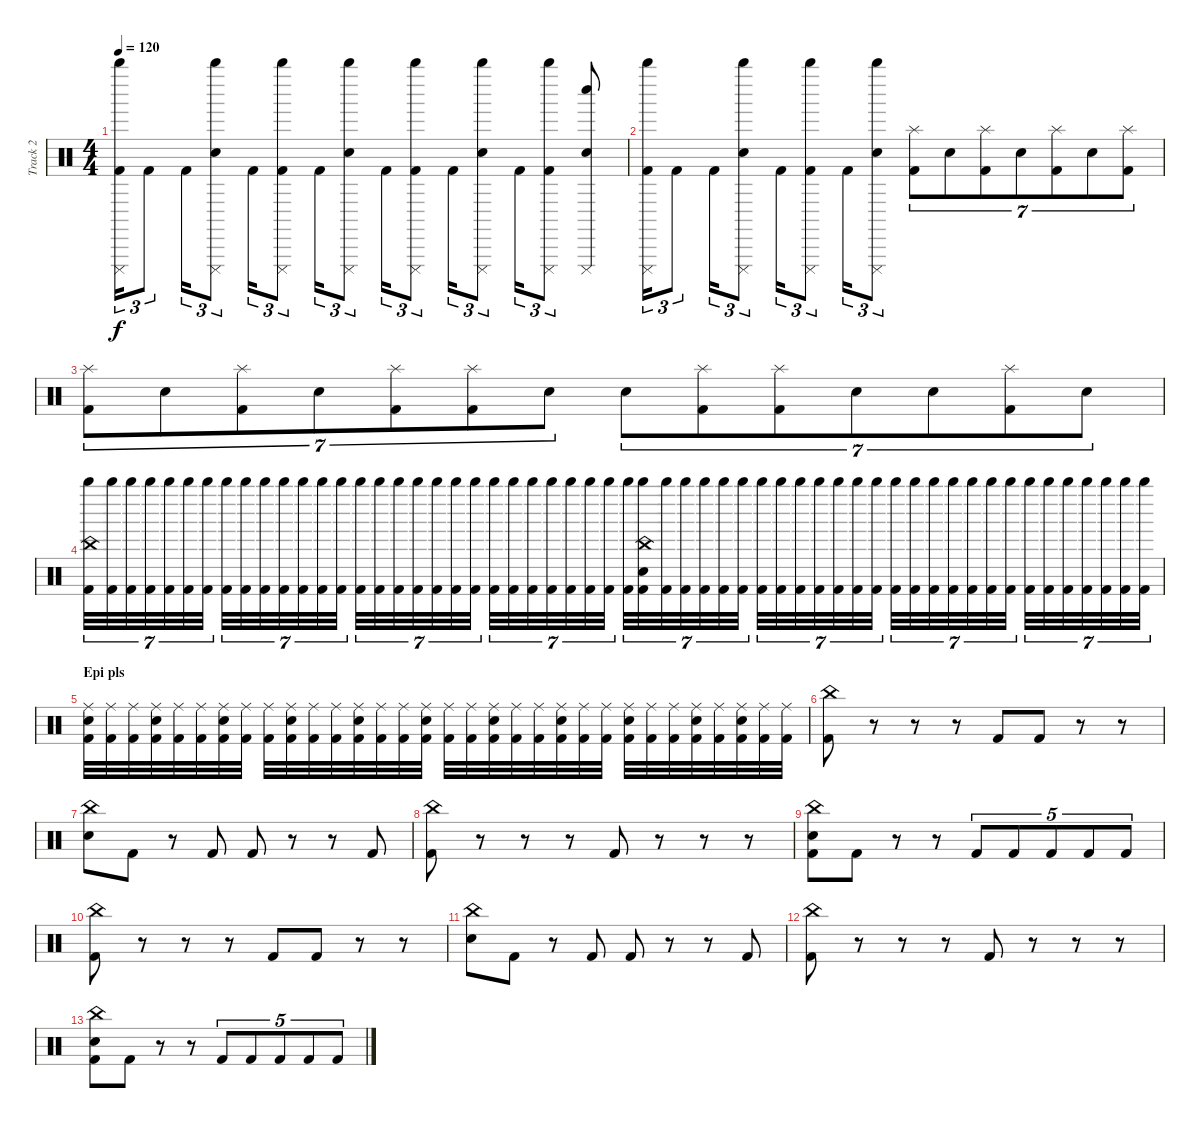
\track ("Track 2" "Track 2") {instrument percussion}
\staff {score}
\articulation defaults
\ts (4 4)
\tempo 120
\clef neutral
\ks c
("Whistle high (hit)" "Cuica (mute)" "Kick (hit) 2").16{tu (3 2) dy f} "Kick (hit) 2".8{tu (3 2)} "Kick (hit) 2".16{tu (3 2)} ("Whistle high (hit)" "Cuica (mute)" "Electric Snare (hit)").8{tu (3 2)} "Kick (hit) 2".16{tu (3 2)} ("Whistle high (hit)" "Cuica (mute)" "Kick (hit) 2").8{tu (3 2)} "Kick (hit) 2".16{tu (3 2)} ("Whistle high (hit)" "Cuica (mute)" "Electric Snare (hit)").8{tu (3 2)} "Kick (hit) 2".16{tu (3 2)} ("Whistle high (hit)" "Cuica (mute)" "Kick (hit) 2").8{tu (3 2)} "Kick (hit) 2".16{tu (3 2)} ("Whistle high (hit)" "Cuica (mute)" "Electric Snare (hit)").8{tu (3 2)} "Kick (hit) 2".16{tu (3 2)} ("Whistle high (hit)" "Cuica (mute)" "Kick (hit) 2").8{tu (3 2)} ("Whistle low (hit)" "Cuica (mute)" "Electric Snare (hit)").8 |
("Whistle high (hit)" "Cuica (mute)" "Kick (hit) 2").16{tu (3 2)} "Kick (hit) 2".8{tu (3 2)} "Kick (hit) 2".16{tu (3 2)} ("Whistle high (hit)" "Cuica (mute)" "Electric Snare (hit)").8{tu (3 2)} "Kick (hit) 2".16{tu (3 2)} ("Whistle high (hit)" "Cuica (mute)" "Kick (hit) 2").8{tu (3 2)} "Kick (hit) 2".16{tu (3 2)} ("Whistle high (hit)" "Cuica (mute)" "Electric Snare (hit)").8{tu (3 2)} ("Splash (hit)" "Kick (hit) 2").8{tu (7 4)} "Electric Snare (hit)".8{tu (7 4)} ("Splash (hit)" "Kick (hit) 2").8{tu (7 4)} "Electric Snare (hit)".8{tu (7 4)} ("Splash (hit)" "Kick (hit) 2").8{tu (7 4)} "Electric Snare (hit)".8{tu (7 4)} ("Splash (hit)" "Kick (hit) 2").8{tu (7 4)} |
("Splash (hit)" "Kick (hit) 2").8{tu (7 4)} "Electric Snare (hit)".8{tu (7 4)} ("Splash (hit)" "Kick (hit) 2").8{tu (7 4)} "Electric Snare (hit)".8{tu (7 4)} ("Splash (hit)" "Kick (hit) 2").8{tu (7 4)} ("Splash (hit)" "Kick (hit) 2").8{tu (7 4)} "Electric Snare (hit)".8{tu (7 4)} "Electric Snare (hit)".8{tu (7 4)} ("Splash (hit)" "Kick (hit) 2").8{tu (7 4)} ("Splash (hit)" "Kick (hit) 2").8{tu (7 4)} "Electric Snare (hit)".8{tu (7 4)} "Electric Snare (hit)".8{tu (7 4)} ("Splash (hit)" "Kick (hit) 2").8{tu (7 4)} "Electric Snare (hit)".8{tu (7 4)} |
("China (hit)" "Whistle high (hit)" "Kick (hit) 2").32{tu (7 4)} ("Whistle high (hit)" "Kick (hit) 2").32{tu (7 4)} ("Whistle high (hit)" "Kick (hit) 2").32{tu (7 4)} ("Whistle high (hit)" "Kick (hit) 2").32{tu (7 4)} ("Whistle high (hit)" "Kick (hit) 2").32{tu (7 4)} ("Whistle high (hit)" "Kick (hit) 2").32{tu (7 4)} ("Whistle high (hit)" "Kick (hit) 2").32{tu (7 4)} ("Whistle high (hit)" "Kick (hit) 2").32{tu (7 4)} ("Whistle high (hit)" "Kick (hit) 2").32{tu (7 4)} ("Whistle high (hit)" "Kick (hit) 2").32{tu (7 4)} ("Whistle high (hit)" "Kick (hit) 2").32{tu (7 4)} ("Whistle high (hit)" "Kick (hit) 2").32{tu (7 4)} ("Whistle high (hit)" "Kick (hit) 2").32{tu (7 4)} ("Whistle high (hit)" "Kick (hit) 2").32{tu (7 4)} ("Whistle high (hit)" "Kick (hit) 2").32{tu (7 4)} ("Whistle high (hit)" "Kick (hit) 2").32{tu (7 4)} ("Whistle high (hit)" "Kick (hit) 2").32{tu (7 4)} ("Whistle high (hit)" "Kick (hit) 2").32{tu (7 4)} ("Whistle high (hit)" "Kick (hit) 2").32{tu (7 4)} ("Whistle high (hit)" "Kick (hit) 2").32{tu (7 4)} ("Whistle high (hit)" "Kick (hit) 2").32{tu (7 4)} ("Whistle high (hit)" "Kick (hit) 2").32{tu (7 4)} ("Whistle high (hit)" "Kick (hit) 2").32{tu (7 4)} ("Whistle high (hit)" "Kick (hit) 2").32{tu (7 4)} ("Whistle high (hit)" "Kick (hit) 2").32{tu (7 4)} ("Whistle high (hit)" "Kick (hit) 2").32{tu (7 4)} ("Whistle high (hit)" "Kick (hit) 2").32{tu (7 4)} ("Whistle high (hit)" "Kick (hit) 2").32{tu (7 4)} ("Whistle high (hit)" "Kick (hit) 2").32{tu (7 4)} ("China (hit)" "Whistle high (hit)" "Electric Snare (hit)" "Kick (hit) 2").32{tu (7 4)} ("Whistle high (hit)" "Kick (hit) 2").32{tu (7 4)} ("Whistle high (hit)" "Kick (hit) 2").32{tu (7 4)} ("Whistle high (hit)" "Kick (hit) 2").32{tu (7 4)} ("Whistle high (hit)" "Kick (hit) 2").32{tu (7 4)} ("Whistle high (hit)" "Kick (hit) 2").32{tu (7 4)} ("Whistle high (hit)" "Kick (hit) 2").32{tu (7 4)} ("Whistle high (hit)" "Kick (hit) 2").32{tu (7 4)} ("Whistle high (hit)" "Kick (hit) 2").32{tu (7 4)} ("Whistle high (hit)" "Kick (hit) 2").32{tu (7 4)} ("Whistle high (hit)" "Kick (hit) 2").32{tu (7 4)} ("Whistle high (hit)" "Kick (hit) 2").32{tu (7 4)} ("Whistle high (hit)" "Kick (hit) 2").32{tu (7 4)} ("Whistle high (hit)" "Kick (hit) 2").32{tu (7 4)} ("Whistle high (hit)" "Kick (hit) 2").32{tu (7 4)} ("Whistle high (hit)" "Kick (hit) 2").32{tu (7 4)} ("Whistle high (hit)" "Kick (hit) 2").32{tu (7 4)} ("Whistle high (hit)" "Kick (hit) 2").32{tu (7 4)} ("Whistle high (hit)" "Kick (hit) 2").32{tu (7 4)} ("Whistle high (hit)" "Kick (hit) 2").32{tu (7 4)} ("Whistle high (hit)" "Kick (hit) 2").32{tu (7 4)} ("Whistle high (hit)" "Kick (hit) 2").32{tu (7 4)} ("Whistle high (hit)" "Kick (hit) 2").32{tu (7 4)} ("Whistle high (hit)" "Kick (hit) 2").32{tu (7 4)} ("Whistle high (hit)" "Kick (hit) 2").32{tu (7 4)} ("Whistle high (hit)" "Kick (hit) 2").32{tu (7 4)} ("Whistle high (hit)" "Kick (hit) 2").32{tu (7 4)} |
\section ("" "Epi pls")
("Ride (middle)" "Electric Snare (hit)" "Kick (hit) 2").32 ("Ride (middle)" "Kick (hit) 2").32 ("Ride (middle)" "Kick (hit) 2").32 ("Ride (middle)" "Electric Snare (hit)" "Kick (hit) 2").32 ("Ride (middle)" "Kick (hit) 2").32 ("Ride (middle)" "Kick (hit) 2").32 ("Ride (middle)" "Electric Snare (hit)" "Kick (hit) 2").32 ("Ride (middle)" "Kick (hit) 2").32 ("Ride (middle)" "Kick (hit) 2").32 ("Ride (middle)" "Electric Snare (hit)" "Kick (hit) 2").32 ("Ride (middle)" "Kick (hit) 2").32 ("Ride (middle)" "Kick (hit) 2").32 ("Ride (middle)" "Electric Snare (hit)" "Kick (hit) 2").32 ("Ride (middle)" "Kick (hit) 2").32 ("Ride (middle)" "Kick (hit) 2").32 ("Ride (middle)" "Electric Snare (hit)" "Kick (hit) 2").32 ("Ride (middle)" "Kick (hit) 2").32 ("Ride (middle)" "Kick (hit) 2").32 ("Ride (middle)" "Electric Snare (hit)" "Kick (hit) 2").32 ("Ride (middle)" "Kick (hit) 2").32 ("Ride (middle)" "Kick (hit) 2").32 ("Ride (middle)" "Electric Snare (hit)" "Kick (hit) 2").32 ("Ride (middle)" "Kick (hit) 2").32 ("Ride (middle)" "Kick (hit) 2").32 ("Ride (middle)" "Electric Snare (hit)" "Kick (hit) 2").32 ("Ride (middle)" "Kick (hit) 2").32 ("Ride (middle)" "Kick (hit) 2").32 ("Ride (middle)" "Electric Snare (hit)" "Kick (hit) 2").32 ("Ride (middle)" "Kick (hit) 2").32 ("Ride (middle)" "Electric Snare (hit)" "Kick (hit) 2").32 ("Ride (middle)" "Kick (hit) 2").32 ("Ride (middle)" "Kick (hit) 2").32 |
("China (hit)" "Kick (hit) 2").8 r.8 r.8 r.8 "Kick (hit) 2".8 "Kick (hit) 2".8 r.8 r.8 |
("China (hit)" "Electric Snare (hit)").8 "Kick (hit) 2".8 r.8 "Kick (hit) 2".8 "Kick (hit) 2".8 r.8 r.8 "Kick (hit) 2".8 |
("China (hit)" "Kick (hit) 2").8 r.8 r.8 r.8 "Kick (hit) 2".8 r.8 r.8 r.8 |
("China (hit)" "Electric Snare (hit)" "Kick (hit) 2").8 "Kick (hit) 2".8 r.8 r.8 "Kick (hit) 2".8{tu (5 4)} "Kick (hit) 2".8{tu (5 4)} "Kick (hit) 2".8{tu (5 4)} "Kick (hit) 2".8{tu (5 4)} "Kick (hit) 2".8{tu (5 4)} |
("China (hit)" "Kick (hit) 2").8 r.8 r.8 r.8 "Kick (hit) 2".8 "Kick (hit) 2".8 r.8 r.8 |
("China (hit)" "Electric Snare (hit)").8 "Kick (hit) 2".8 r.8 "Kick (hit) 2".8 "Kick (hit) 2".8 r.8 r.8 "Kick (hit) 2".8 |
("China (hit)" "Kick (hit) 2").8 r.8 r.8 r.8 "Kick (hit) 2".8 r.8 r.8 r.8 |
("China (hit)" "Electric Snare (hit)" "Kick (hit) 2").8 "Kick (hit) 2".8 r.8 r.8 "Kick (hit) 2".8{tu (5 4)} "Kick (hit) 2".8{tu (5 4)} "Kick (hit) 2".8{tu (5 4)} "Kick (hit) 2".8{tu (5 4)} "Kick (hit) 2".8{tu (5 4)}
